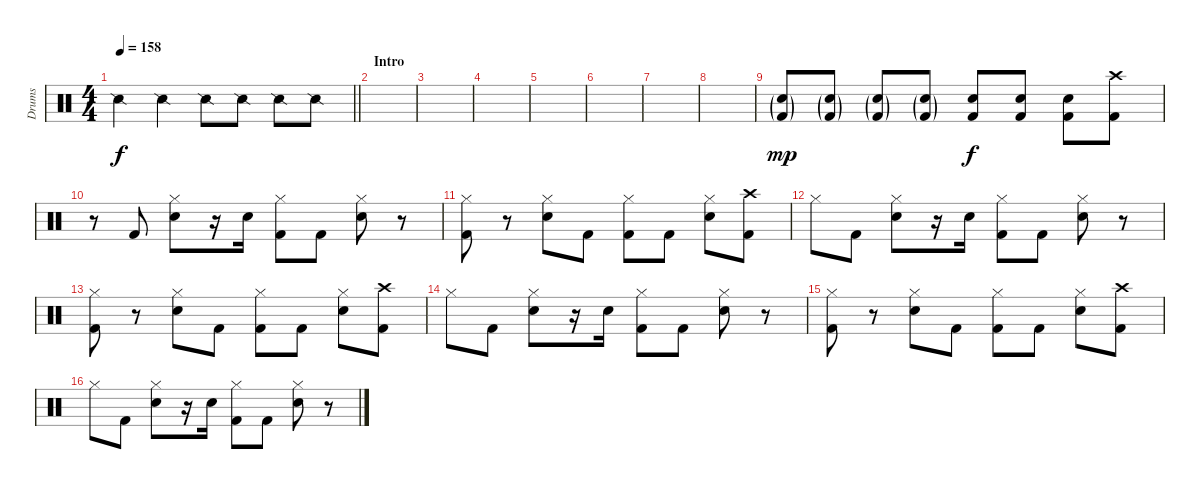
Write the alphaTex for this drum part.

\track ("Drums" "Drums") {instrument percussion}
\staff {score}
\articulation defaults
\ts (4 4)
\tempo 158
\clef neutral
\barLineRight lightlight
\ks c "Snare (side stick) 2".4{dy f} "Snare (side stick) 2".4 "Snare (side stick) 2".8 "Snare (side stick) 2".8 "Snare (side stick) 2".8 "Snare (side stick) 2".8
|
\section ("" "Intro")
|
|
|
|
|
|
|
("Snare (hit) 2"{g} "Kick (hit) 2"{g}).8{dy mp} ("Snare (hit) 2"{g} "Kick (hit) 2"{g}).8 ("Snare (hit) 2"{g} "Kick (hit) 2"{g}).8 ("Snare (hit) 2"{g} "Kick (hit) 2"{g}).8 ("Snare (hit) 2" "Kick (hit) 2").8{dy f} ("Snare (hit) 2" "Kick (hit) 2").8 ("Snare (hit) 2" "Kick (hit) 2").8 ("Crash high (hit)" "Kick (hit) 2").8 |
r.8 "Kick (hit) 2".8 ("Hi-Hat (closed)" "Snare (hit) 2").8 r.16 "Snare (hit) 2".16 ("Hi-Hat (closed)" "Kick (hit) 2").8 "Kick (hit) 2".8 ("Hi-Hat (closed)" "Snare (hit) 2").8 r.8 |
("Hi-Hat (closed)" "Kick (hit) 2").8 r.8 ("Hi-Hat (closed)" "Snare (hit) 2").8 "Kick (hit) 2".8 ("Hi-Hat (closed)" "Kick (hit) 2").8 "Kick (hit) 2".8 ("Hi-Hat (closed)" "Snare (hit) 2").8 ("Crash high (hit)" "Kick (hit) 2").8 |
"Hi-Hat (closed)".8 "Kick (hit) 2".8 ("Hi-Hat (closed)" "Snare (hit) 2").8 r.16 "Snare (hit) 2".16 ("Hi-Hat (closed)" "Kick (hit) 2").8 "Kick (hit) 2".8 ("Hi-Hat (closed)" "Snare (hit) 2").8 r.8 |
("Hi-Hat (closed)" "Kick (hit) 2").8 r.8 ("Hi-Hat (closed)" "Snare (hit) 2").8 "Kick (hit) 2".8 ("Hi-Hat (closed)" "Kick (hit) 2").8 "Kick (hit) 2".8 ("Hi-Hat (closed)" "Snare (hit) 2").8 ("Crash high (hit)" "Kick (hit) 2").8 |
"Hi-Hat (closed)".8 "Kick (hit) 2".8 ("Hi-Hat (closed)" "Snare (hit) 2").8 r.16 "Snare (hit) 2".16 ("Hi-Hat (closed)" "Kick (hit) 2").8 "Kick (hit) 2".8 ("Hi-Hat (closed)" "Snare (hit) 2").8 r.8 |
("Hi-Hat (closed)" "Kick (hit) 2").8 r.8 ("Hi-Hat (closed)" "Snare (hit) 2").8 "Kick (hit) 2".8 ("Hi-Hat (closed)" "Kick (hit) 2").8 "Kick (hit) 2".8 ("Hi-Hat (closed)" "Snare (hit) 2").8 ("Crash high (hit)" "Kick (hit) 2").8 |
"Hi-Hat (closed)".8 "Kick (hit) 2".8 ("Hi-Hat (closed)" "Snare (hit) 2").8 r.16 "Snare (hit) 2".16 ("Hi-Hat (closed)" "Kick (hit) 2").8 "Kick (hit) 2".8 ("Hi-Hat (closed)" "Snare (hit) 2").8 r.8
